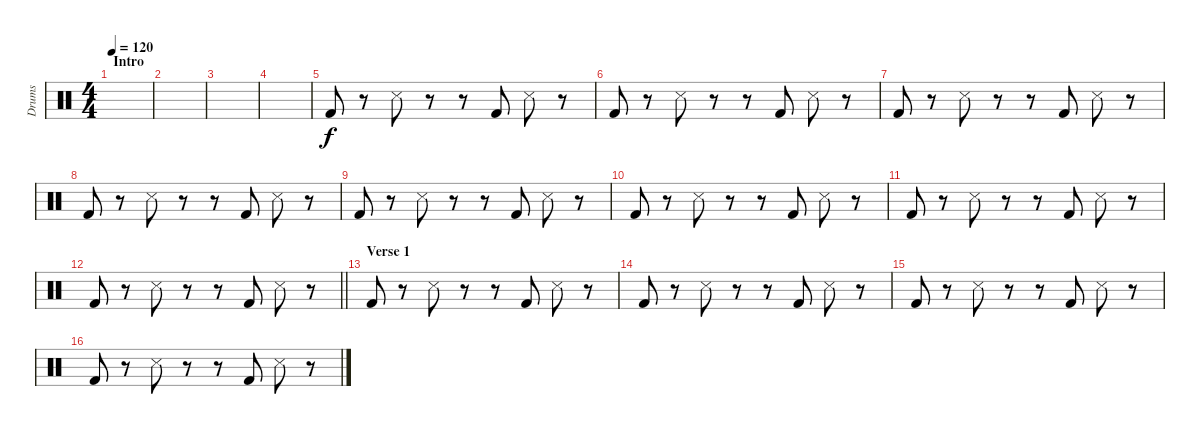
\track ("Drums" "Drums") {instrument percussion}
\staff {score}
\articulation defaults
\ts (4 4)
\section ("" "Intro")
\tempo 120
\clef neutral
\ks c
|
|
|
|
"Kick (hit) 2".8 r.8 "Snare (side stick) 3".8 r.8 r.8 "Kick (hit) 2".8 "Snare (side stick) 3".8 r.8 |
"Kick (hit) 2".8 r.8 "Snare (side stick) 3".8 r.8 r.8 "Kick (hit) 2".8 "Snare (side stick) 3".8 r.8 |
"Kick (hit) 2".8 r.8 "Snare (side stick) 3".8 r.8 r.8 "Kick (hit) 2".8 "Snare (side stick) 3".8 r.8 |
"Kick (hit) 2".8 r.8 "Snare (side stick) 3".8 r.8 r.8 "Kick (hit) 2".8 "Snare (side stick) 3".8 r.8 |
"Kick (hit) 2".8 r.8 "Snare (side stick) 3".8 r.8 r.8 "Kick (hit) 2".8 "Snare (side stick) 3".8 r.8 |
"Kick (hit) 2".8 r.8 "Snare (side stick) 3".8 r.8 r.8 "Kick (hit) 2".8 "Snare (side stick) 3".8 r.8 |
"Kick (hit) 2".8 r.8 "Snare (side stick) 3".8 r.8 r.8 "Kick (hit) 2".8 "Snare (side stick) 3".8 r.8 |
\barLineRight lightlight "Kick (hit) 2".8
r.8 "Snare (side stick) 3".8 r.8 r.8 "Kick (hit) 2".8 "Snare (side stick) 3".8 r.8 |
\section ("" "Verse 1")
"Kick (hit) 2".8 r.8 "Snare (side stick) 3".8 r.8 r.8 "Kick (hit) 2".8 "Snare (side stick) 3".8 r.8 |
"Kick (hit) 2".8 r.8 "Snare (side stick) 3".8 r.8 r.8 "Kick (hit) 2".8 "Snare (side stick) 3".8 r.8 |
"Kick (hit) 2".8 r.8 "Snare (side stick) 3".8 r.8 r.8 "Kick (hit) 2".8 "Snare (side stick) 3".8 r.8 |
"Kick (hit) 2".8 r.8 "Snare (side stick) 3".8 r.8 r.8 "Kick (hit) 2".8 "Snare (side stick) 3".8 r.8
